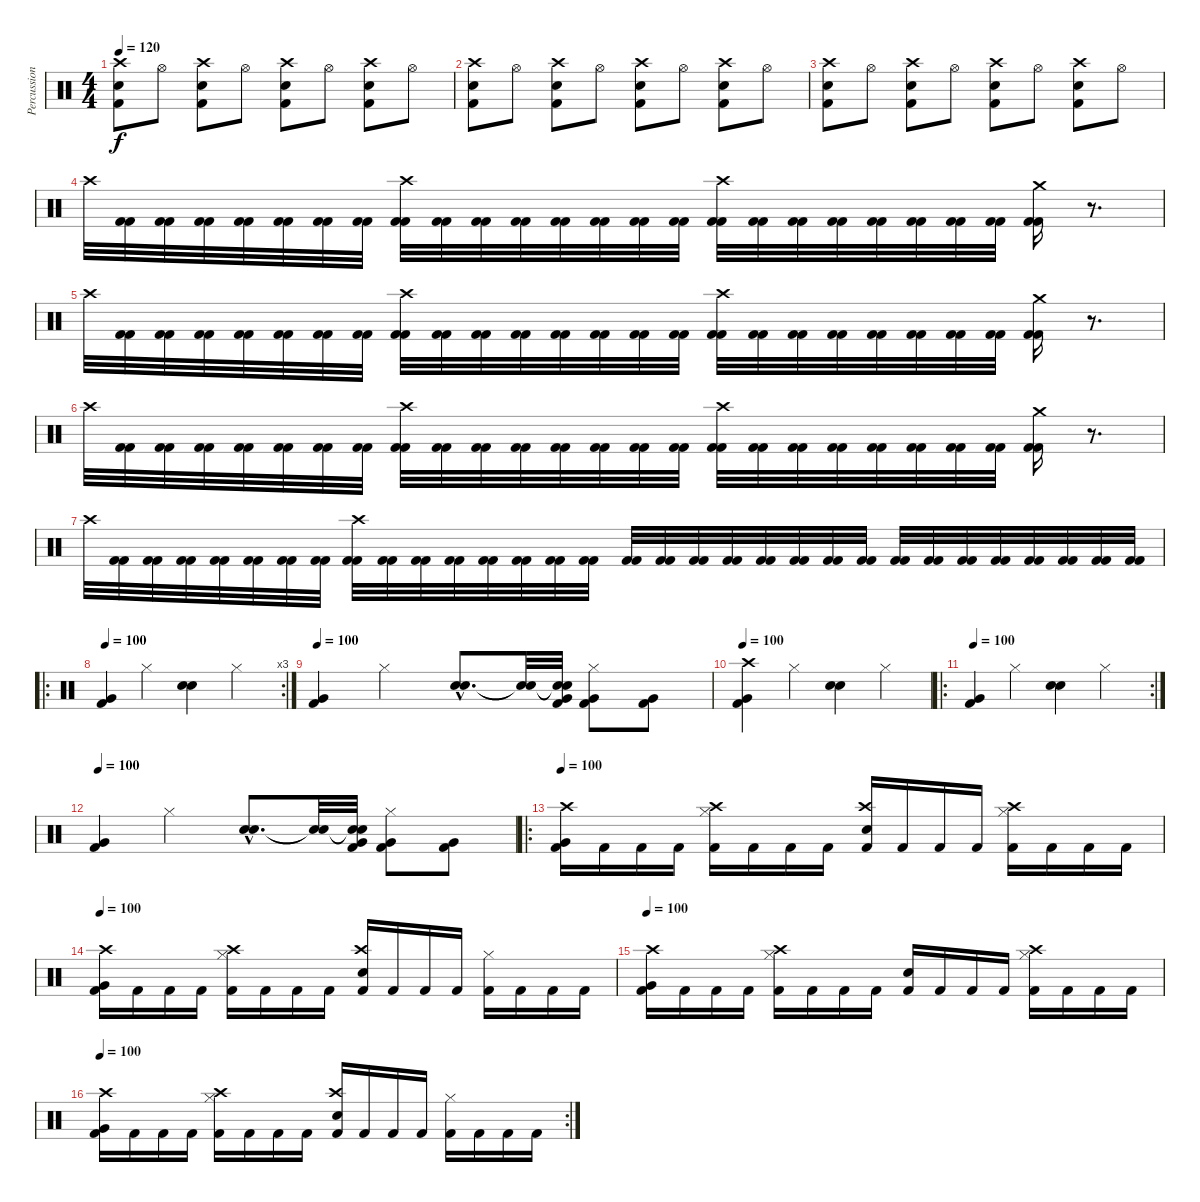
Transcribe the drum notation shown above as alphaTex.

\track ("Percussions" "Percussion") {instrument percussion}
\staff {score}
\articulation defaults
\ts (4 4)
\tempo 120
\clef neutral
\ks c
("Snare (hit) 2" "Crash high (hit)" "Kick (hit) 2").8{dy f} "Hi-Hat (open)".8 ("Snare (hit) 2" "Crash high (hit)" "Kick (hit) 2").8 "Hi-Hat (open)".8 ("Snare (hit) 2" "Crash high (hit)" "Kick (hit) 2").8 "Hi-Hat (open)".8 ("Snare (hit) 2" "Crash high (hit)" "Kick (hit) 2").8 "Hi-Hat (open)".8 |
("Snare (hit) 2" "Crash high (hit)" "Kick (hit) 2").8 "Hi-Hat (open)".8 ("Snare (hit) 2" "Crash high (hit)" "Kick (hit) 2").8 "Hi-Hat (open)".8 ("Snare (hit) 2" "Crash high (hit)" "Kick (hit) 2").8 "Hi-Hat (open)".8 ("Snare (hit) 2" "Crash high (hit)" "Kick (hit) 2").8 "Hi-Hat (open)".8 |
("Snare (hit) 2" "Crash high (hit)" "Kick (hit) 2").8 "Hi-Hat (open)".8 ("Snare (hit) 2" "Crash high (hit)" "Kick (hit) 2").8 "Hi-Hat (open)".8 ("Snare (hit) 2" "Crash high (hit)" "Kick (hit) 2").8 "Hi-Hat (open)".8 ("Snare (hit) 2" "Crash high (hit)" "Kick (hit) 2").8 "Hi-Hat (open)".8 |
"Crash high (hit)".32 ("Kick (hit) 2" "Kick (hit) 2").32 ("Kick (hit) 2" "Kick (hit) 2").32 ("Kick (hit) 2" "Kick (hit) 2").32 ("Kick (hit) 2" "Kick (hit) 2").32 ("Kick (hit) 2" "Kick (hit) 2").32 ("Kick (hit) 2" "Kick (hit) 2").32 ("Kick (hit) 2" "Kick (hit) 2").32 ("Crash high (hit)" "Kick (hit) 2" "Kick (hit) 2").32 ("Kick (hit) 2" "Kick (hit) 2").32 ("Kick (hit) 2" "Kick (hit) 2").32 ("Kick (hit) 2" "Kick (hit) 2").32 ("Kick (hit) 2" "Kick (hit) 2").32 ("Kick (hit) 2" "Kick (hit) 2").32 ("Kick (hit) 2" "Kick (hit) 2").32 ("Kick (hit) 2" "Kick (hit) 2").32 ("Crash high (hit)" "Kick (hit) 2" "Kick (hit) 2").32 ("Kick (hit) 2" "Kick (hit) 2").32 ("Kick (hit) 2" "Kick (hit) 2").32 ("Kick (hit) 2" "Kick (hit) 2").32 ("Kick (hit) 2" "Kick (hit) 2").32 ("Kick (hit) 2" "Kick (hit) 2").32 ("Kick (hit) 2" "Kick (hit) 2").32 ("Kick (hit) 2" "Kick (hit) 2").32 ("Crash medium (hit)" "Kick (hit) 2" "Kick (hit) 2").16 r.8{d} |
"Crash high (hit)".32 ("Kick (hit) 2" "Kick (hit) 2").32 ("Kick (hit) 2" "Kick (hit) 2").32 ("Kick (hit) 2" "Kick (hit) 2").32 ("Kick (hit) 2" "Kick (hit) 2").32 ("Kick (hit) 2" "Kick (hit) 2").32 ("Kick (hit) 2" "Kick (hit) 2").32 ("Kick (hit) 2" "Kick (hit) 2").32 ("Crash high (hit)" "Kick (hit) 2" "Kick (hit) 2").32 ("Kick (hit) 2" "Kick (hit) 2").32 ("Kick (hit) 2" "Kick (hit) 2").32 ("Kick (hit) 2" "Kick (hit) 2").32 ("Kick (hit) 2" "Kick (hit) 2").32 ("Kick (hit) 2" "Kick (hit) 2").32 ("Kick (hit) 2" "Kick (hit) 2").32 ("Kick (hit) 2" "Kick (hit) 2").32 ("Crash high (hit)" "Kick (hit) 2" "Kick (hit) 2").32 ("Kick (hit) 2" "Kick (hit) 2").32 ("Kick (hit) 2" "Kick (hit) 2").32 ("Kick (hit) 2" "Kick (hit) 2").32 ("Kick (hit) 2" "Kick (hit) 2").32 ("Kick (hit) 2" "Kick (hit) 2").32 ("Kick (hit) 2" "Kick (hit) 2").32 ("Kick (hit) 2" "Kick (hit) 2").32 ("Crash medium (hit)" "Kick (hit) 2" "Kick (hit) 2").16 r.8{d} |
"Crash high (hit)".32 ("Kick (hit) 2" "Kick (hit) 2").32 ("Kick (hit) 2" "Kick (hit) 2").32 ("Kick (hit) 2" "Kick (hit) 2").32 ("Kick (hit) 2" "Kick (hit) 2").32 ("Kick (hit) 2" "Kick (hit) 2").32 ("Kick (hit) 2" "Kick (hit) 2").32 ("Kick (hit) 2" "Kick (hit) 2").32 ("Crash high (hit)" "Kick (hit) 2" "Kick (hit) 2").32 ("Kick (hit) 2" "Kick (hit) 2").32 ("Kick (hit) 2" "Kick (hit) 2").32 ("Kick (hit) 2" "Kick (hit) 2").32 ("Kick (hit) 2" "Kick (hit) 2").32 ("Kick (hit) 2" "Kick (hit) 2").32 ("Kick (hit) 2" "Kick (hit) 2").32 ("Kick (hit) 2" "Kick (hit) 2").32 ("Crash high (hit)" "Kick (hit) 2" "Kick (hit) 2").32 ("Kick (hit) 2" "Kick (hit) 2").32 ("Kick (hit) 2" "Kick (hit) 2").32 ("Kick (hit) 2" "Kick (hit) 2").32 ("Kick (hit) 2" "Kick (hit) 2").32 ("Kick (hit) 2" "Kick (hit) 2").32 ("Kick (hit) 2" "Kick (hit) 2").32 ("Kick (hit) 2" "Kick (hit) 2").32 ("Crash medium (hit)" "Kick (hit) 2" "Kick (hit) 2").16 r.8{d} |
"Crash high (hit)".32 ("Kick (hit) 2" "Kick (hit) 2").32 ("Kick (hit) 2" "Kick (hit) 2").32 ("Kick (hit) 2" "Kick (hit) 2").32 ("Kick (hit) 2" "Kick (hit) 2").32 ("Kick (hit) 2" "Kick (hit) 2").32 ("Kick (hit) 2" "Kick (hit) 2").32 ("Kick (hit) 2" "Kick (hit) 2").32 ("Crash high (hit)" "Kick (hit) 2" "Kick (hit) 2").32 ("Kick (hit) 2" "Kick (hit) 2").32 ("Kick (hit) 2" "Kick (hit) 2").32 ("Kick (hit) 2" "Kick (hit) 2").32 ("Kick (hit) 2" "Kick (hit) 2").32 ("Kick (hit) 2" "Kick (hit) 2").32 ("Kick (hit) 2" "Kick (hit) 2").32 ("Kick (hit) 2" "Kick (hit) 2").32 ("Kick (hit) 2" "Kick (hit) 2").32 ("Kick (hit) 2" "Kick (hit) 2").32 ("Kick (hit) 2" "Kick (hit) 2").32 ("Kick (hit) 2" "Kick (hit) 2").32 ("Kick (hit) 2" "Kick (hit) 2").32 ("Kick (hit) 2" "Kick (hit) 2").32 ("Kick (hit) 2" "Kick (hit) 2").32 ("Kick (hit) 2" "Kick (hit) 2").32 ("Kick (hit) 2" "Kick (hit) 2").32 ("Kick (hit) 2" "Kick (hit) 2").32 ("Kick (hit) 2" "Kick (hit) 2").32 ("Kick (hit) 2" "Kick (hit) 2").32 ("Kick (hit) 2" "Kick (hit) 2").32 ("Kick (hit) 2" "Kick (hit) 2").32 ("Kick (hit) 2" "Kick (hit) 2").32 ("Kick (hit) 2" "Kick (hit) 2").32 |
\ro
\rc 3
\tempo 100
("Very Low Tom (hit)" "Kick (hit) 2").4 "Hi-Hat (closed)".4 ("Snare (hit) 2" "Snare (hit) 2").4 "Hi-Hat (closed)".4 |
\tempo 100
("Very Low Tom (hit)" "Kick (hit) 2").4 "Hi-Hat (closed)".4 ("Snare (hit) 2"{hac} "Snare (hit) 2"{hac}).8{d} ("Snare (hit)"{t} "Snare (hit)"{t}).32 ("Snare (hit)"{t} "Snare (hit)"{t} "Very Low Tom (hit)" "Kick (hit) 2").32 ("Hi-Hat (closed)" "Very Low Tom (hit)" "Kick (hit) 2").8 ("Very Low Tom (hit)" "Kick (hit) 2").8 |
\tempo 100
("Crash high (hit)" "Very Low Tom (hit)" "Kick (hit) 2").4 "Hi-Hat (closed)".4 ("Snare (hit) 2" "Snare (hit) 2").4 "Hi-Hat (closed)".4 |
\ro
\rc 2
\tempo 100
("Very Low Tom (hit)" "Kick (hit) 2").4 "Hi-Hat (closed)".4 ("Snare (hit) 2" "Snare (hit) 2").4 "Hi-Hat (closed)".4 |
\tempo 100
("Very Low Tom (hit)" "Kick (hit) 2").4 "Hi-Hat (closed)".4 ("Snare (hit) 2"{hac} "Snare (hit) 2"{hac}).8{d} ("Snare (hit)"{t} "Snare (hit)"{t}).32 ("Snare (hit)"{t} "Snare (hit)"{t} "Very Low Tom (hit)" "Kick (hit) 2").32 ("Hi-Hat (closed)" "Very Low Tom (hit)" "Kick (hit) 2").8 ("Very Low Tom (hit)" "Kick (hit) 2").8 |
\ro
\tempo 100
("Crash high (hit)" "Very Low Tom (hit)" "Kick (hit) 2").16 "Kick (hit) 2".16 "Kick (hit) 2".16 "Kick (hit) 2".16 ("Hi-Hat (closed)" "Crash high (hit)" "Kick (hit) 2").16 "Kick (hit) 2".16 "Kick (hit) 2".16 "Kick (hit) 2".16 ("Snare (hit) 2" "Crash high (hit)" "Kick (hit) 2").16 "Kick (hit) 2".16 "Kick (hit) 2".16 "Kick (hit) 2".16 ("Hi-Hat (closed)" "Crash high (hit)" "Kick (hit) 2").16 "Kick (hit) 2".16 "Kick (hit) 2".16 "Kick (hit) 2".16 |
\tempo 100
("Crash high (hit)" "Very Low Tom (hit)" "Kick (hit) 2").16 "Kick (hit) 2".16 "Kick (hit) 2".16 "Kick (hit) 2".16 ("Hi-Hat (closed)" "Crash high (hit)" "Kick (hit) 2").16 "Kick (hit) 2".16 "Kick (hit) 2".16 "Kick (hit) 2".16 ("Snare (hit) 2" "Crash high (hit)" "Kick (hit) 2").16 "Kick (hit) 2".16 "Kick (hit) 2".16 "Kick (hit) 2".16 ("Hi-Hat (closed)" "Kick (hit) 2").16 "Kick (hit) 2".16 "Kick (hit) 2".16 "Kick (hit) 2".16 |
\tempo 100
("Crash high (hit)" "Very Low Tom (hit)" "Kick (hit) 2").16 "Kick (hit) 2".16 "Kick (hit) 2".16 "Kick (hit) 2".16 ("Hi-Hat (closed)" "Crash high (hit)" "Kick (hit) 2").16 "Kick (hit) 2".16 "Kick (hit) 2".16 "Kick (hit) 2".16 ("Snare (hit) 2" "Kick (hit) 2").16 "Kick (hit) 2".16 "Kick (hit) 2".16 "Kick (hit) 2".16 ("Hi-Hat (closed)" "Crash high (hit)" "Kick (hit) 2").16 "Kick (hit) 2".16 "Kick (hit) 2".16 "Kick (hit) 2".16 |
\rc 2
\tempo 100
("Crash high (hit)" "Very Low Tom (hit)" "Kick (hit) 2").16 "Kick (hit) 2".16 "Kick (hit) 2".16 "Kick (hit) 2".16 ("Hi-Hat (closed)" "Crash high (hit)" "Kick (hit) 2").16 "Kick (hit) 2".16 "Kick (hit) 2".16 "Kick (hit) 2".16 ("Snare (hit) 2" "Crash high (hit)" "Kick (hit) 2").16 "Kick (hit) 2".16 "Kick (hit) 2".16 "Kick (hit) 2".16 ("Hi-Hat (closed)" "Kick (hit) 2").16 "Kick (hit) 2".16 "Kick (hit) 2".16 "Kick (hit) 2".16
